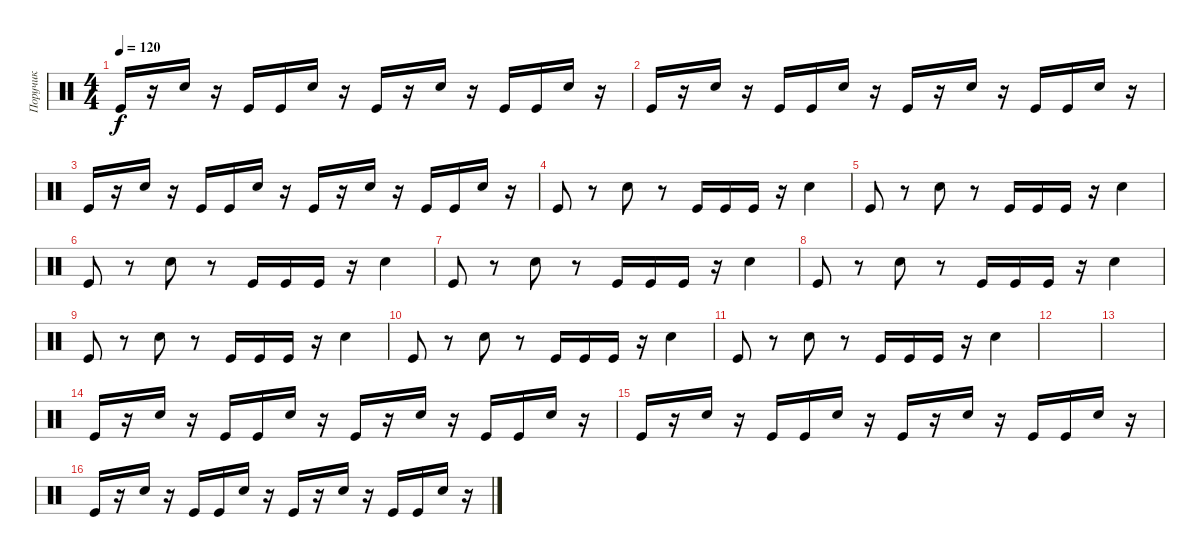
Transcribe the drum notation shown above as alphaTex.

\track ("Поручик" "Поручик") {instrument percussion}
\staff {score}
\articulation defaults
\ts (4 4)
\tempo 120
\clef neutral
\ks c "Kick (hit)".16{dy f}
r.16 "Snare (hit) 2".16 r.16 "Kick (hit)".16 "Kick (hit)".16 "Snare (hit) 2".16 r.16 "Kick (hit)".16 r.16 "Snare (hit) 2".16 r.16 "Kick (hit)".16 "Kick (hit)".16 "Snare (hit) 2".16 r.16 |
"Kick (hit)".16 r.16 "Snare (hit) 2".16 r.16 "Kick (hit)".16 "Kick (hit)".16 "Snare (hit) 2".16 r.16 "Kick (hit)".16 r.16 "Snare (hit) 2".16 r.16 "Kick (hit)".16 "Kick (hit)".16 "Snare (hit) 2".16 r.16 |
"Kick (hit)".16 r.16 "Snare (hit) 2".16 r.16 "Kick (hit)".16 "Kick (hit)".16 "Snare (hit) 2".16 r.16 "Kick (hit)".16 r.16 "Snare (hit) 2".16 r.16 "Kick (hit)".16 "Kick (hit)".16 "Snare (hit) 2".16 r.16 |
"Kick (hit)".8 r.8 "Snare (hit) 2".8 r.8 "Kick (hit)".16 "Kick (hit)".16 "Kick (hit)".16 r.16 "Snare (hit) 2".4 |
"Kick (hit)".8 r.8 "Snare (hit) 2".8 r.8 "Kick (hit)".16 "Kick (hit)".16 "Kick (hit)".16 r.16 "Snare (hit) 2".4 |
"Kick (hit)".8 r.8 "Snare (hit) 2".8 r.8 "Kick (hit)".16 "Kick (hit)".16 "Kick (hit)".16 r.16 "Snare (hit) 2".4 |
"Kick (hit)".8 r.8 "Snare (hit) 2".8 r.8 "Kick (hit)".16 "Kick (hit)".16 "Kick (hit)".16 r.16 "Snare (hit) 2".4 |
"Kick (hit)".8 r.8 "Snare (hit) 2".8 r.8 "Kick (hit)".16 "Kick (hit)".16 "Kick (hit)".16 r.16 "Snare (hit) 2".4 |
"Kick (hit)".8 r.8 "Snare (hit) 2".8 r.8 "Kick (hit)".16 "Kick (hit)".16 "Kick (hit)".16 r.16 "Snare (hit) 2".4 |
"Kick (hit)".8 r.8 "Snare (hit) 2".8 r.8 "Kick (hit)".16 "Kick (hit)".16 "Kick (hit)".16 r.16 "Snare (hit) 2".4 |
"Kick (hit)".8 r.8 "Snare (hit) 2".8 r.8 "Kick (hit)".16 "Kick (hit)".16 "Kick (hit)".16 r.16 "Snare (hit) 2".4 |
|
|
"Kick (hit)".16 r.16 "Snare (hit) 2".16 r.16 "Kick (hit)".16 "Kick (hit)".16 "Snare (hit) 2".16 r.16 "Kick (hit)".16 r.16 "Snare (hit) 2".16 r.16 "Kick (hit)".16 "Kick (hit)".16 "Snare (hit) 2".16 r.16 |
"Kick (hit)".16 r.16 "Snare (hit) 2".16 r.16 "Kick (hit)".16 "Kick (hit)".16 "Snare (hit) 2".16 r.16 "Kick (hit)".16 r.16 "Snare (hit) 2".16 r.16 "Kick (hit)".16 "Kick (hit)".16 "Snare (hit) 2".16 r.16 |
"Kick (hit)".16 r.16 "Snare (hit) 2".16 r.16 "Kick (hit)".16 "Kick (hit)".16 "Snare (hit) 2".16 r.16 "Kick (hit)".16 r.16 "Snare (hit) 2".16 r.16 "Kick (hit)".16 "Kick (hit)".16 "Snare (hit) 2".16 r.16
